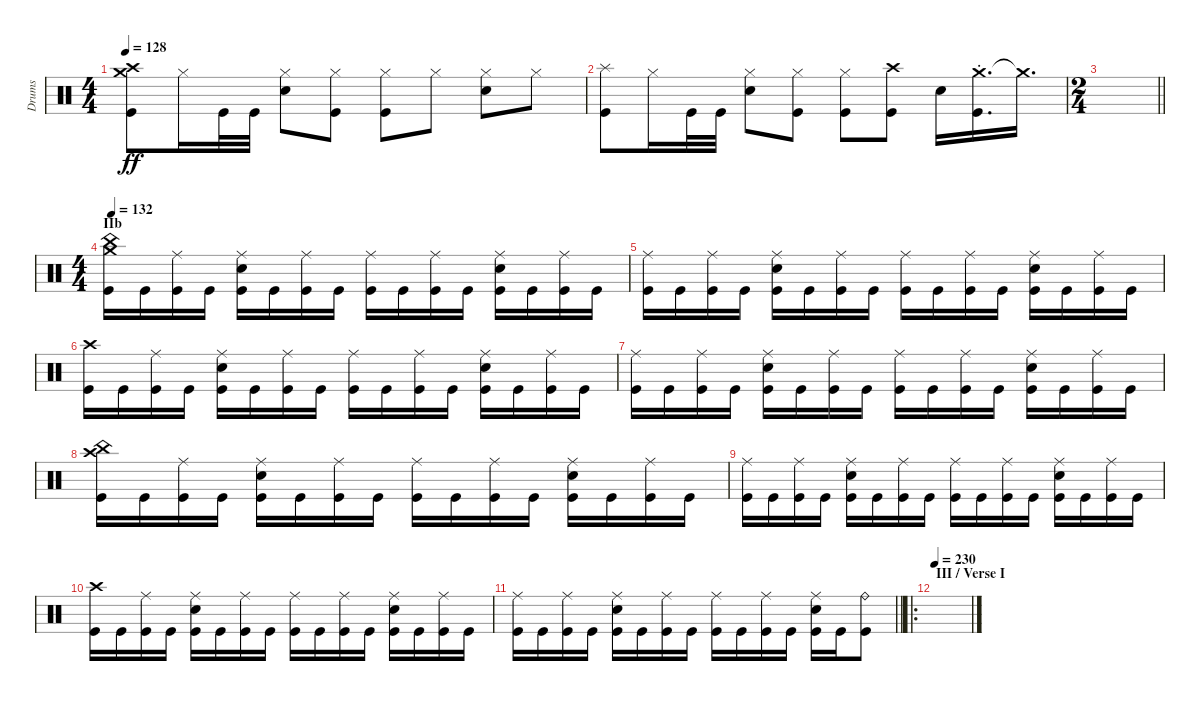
\track ("Drums" "Drums") {instrument percussion}
\staff {score}
\articulation defaults
\ts (4 4)
\tempo 128
\clef neutral
\ks c
("Crash medium (hit)" "Crash high (hit)" "Kick (hit)").8{dy ff} "Hi-Hat (closed)".16 "Kick (hit)".32 "Kick (hit)".32 ("Hi-Hat (closed)" "Electric Snare (hit)").8 ("Hi-Hat (closed)" "Kick (hit)").8 ("Hi-Hat (closed)" "Kick (hit)").8 "Hi-Hat (closed)".8 ("Hi-Hat (closed)" "Electric Snare (hit)").8 "Hi-Hat (closed)".8 |
("Splash (hit)" "Kick (hit)").8 "Hi-Hat (closed)".16 "Kick (hit)".32 "Kick (hit)".32 ("Hi-Hat (closed)" "Electric Snare (hit)").8 ("Hi-Hat (closed)" "Kick (hit)").8 ("Hi-Hat (closed)" "Kick (hit)").8 ("Crash high (hit)" "Kick (hit)").8 "Electric Snare (hit)".16 ("Crash medium (hit)"{st} "Kick (hit)").16{d} "Crash medium (hit)"{t}.16{d} |
\ts (2 4)
\barLineRight lightlight
|
\ts (4 4)
\section ("" "IIb")
\tempo 132
("Crash medium (hit)" "China (hit)" "Kick (hit)").16 "Kick (hit)".16 ("Ride (middle)" "Kick (hit)").16 "Kick (hit)".16 ("Ride (middle)" "Electric Snare (hit)" "Kick (hit)").16 "Kick (hit)".16 ("Ride (middle)" "Kick (hit)").16 "Kick (hit)".16 ("Ride (middle)" "Kick (hit)").16 "Kick (hit)".16 ("Ride (middle)" "Kick (hit)").16 "Kick (hit)".16 ("Ride (middle)" "Electric Snare (hit)" "Kick (hit)").16 "Kick (hit)".16 ("Ride (middle)" "Kick (hit)").16 "Kick (hit)".16 |
("Ride (middle)" "Kick (hit)").16 "Kick (hit)".16 ("Ride (middle)" "Kick (hit)").16 "Kick (hit)".16 ("Ride (middle)" "Electric Snare (hit)" "Kick (hit)").16 "Kick (hit)".16 ("Ride (middle)" "Kick (hit)").16 "Kick (hit)".16 ("Ride (middle)" "Kick (hit)").16 "Kick (hit)".16 ("Ride (middle)" "Kick (hit)").16 "Kick (hit)".16 ("Ride (middle)" "Electric Snare (hit)" "Kick (hit)").16 "Kick (hit)".16 ("Ride (middle)" "Kick (hit)").16 "Kick (hit)".16 |
("Crash high (hit)" "Kick (hit)").16 "Kick (hit)".16 ("Ride (middle)" "Kick (hit)").16 "Kick (hit)".16 ("Ride (middle)" "Electric Snare (hit)" "Kick (hit)").16 "Kick (hit)".16 ("Ride (middle)" "Kick (hit)").16 "Kick (hit)".16 ("Ride (middle)" "Kick (hit)").16 "Kick (hit)".16 ("Ride (middle)" "Kick (hit)").16 "Kick (hit)".16 ("Ride (middle)" "Electric Snare (hit)" "Kick (hit)").16 "Kick (hit)".16 ("Ride (middle)" "Kick (hit)").16 "Kick (hit)".16 |
("Ride (middle)" "Kick (hit)").16 "Kick (hit)".16 ("Ride (middle)" "Kick (hit)").16 "Kick (hit)".16 ("Ride (middle)" "Electric Snare (hit)" "Kick (hit)").16 "Kick (hit)".16 ("Ride (middle)" "Kick (hit)").16 "Kick (hit)".16 ("Ride (middle)" "Kick (hit)").16 "Kick (hit)".16 ("Ride (middle)" "Kick (hit)").16 "Kick (hit)".16 ("Ride (middle)" "Electric Snare (hit)" "Kick (hit)").16 "Kick (hit)".16 ("Ride (middle)" "Kick (hit)").16 "Kick (hit)".16 |
("Crash high (hit)" "China (hit)" "Kick (hit)").16 "Kick (hit)".16 ("Ride (middle)" "Kick (hit)").16 "Kick (hit)".16 ("Ride (middle)" "Electric Snare (hit)" "Kick (hit)").16 "Kick (hit)".16 ("Ride (middle)" "Kick (hit)").16 "Kick (hit)".16 ("Ride (middle)" "Kick (hit)").16 "Kick (hit)".16 ("Ride (middle)" "Kick (hit)").16 "Kick (hit)".16 ("Ride (middle)" "Electric Snare (hit)" "Kick (hit)").16 "Kick (hit)".16 ("Ride (middle)" "Kick (hit)").16 "Kick (hit)".16 |
("Ride (middle)" "Kick (hit)").16 "Kick (hit)".16 ("Ride (middle)" "Kick (hit)").16 "Kick (hit)".16 ("Ride (middle)" "Electric Snare (hit)" "Kick (hit)").16 "Kick (hit)".16 ("Ride (middle)" "Kick (hit)").16 "Kick (hit)".16 ("Ride (middle)" "Kick (hit)").16 "Kick (hit)".16 ("Ride (middle)" "Kick (hit)").16 "Kick (hit)".16 ("Ride (middle)" "Electric Snare (hit)" "Kick (hit)").16 "Kick (hit)".16 ("Ride (middle)" "Kick (hit)").16 "Kick (hit)".16 |
("Crash high (hit)" "Kick (hit)").16 "Kick (hit)".16 ("Ride (middle)" "Kick (hit)").16 "Kick (hit)".16 ("Ride (middle)" "Electric Snare (hit)" "Kick (hit)").16 "Kick (hit)".16 ("Ride (middle)" "Kick (hit)").16 "Kick (hit)".16 ("Ride (middle)" "Kick (hit)").16 "Kick (hit)".16 ("Ride (middle)" "Kick (hit)").16 "Kick (hit)".16 ("Ride (middle)" "Electric Snare (hit)" "Kick (hit)").16 "Kick (hit)".16 ("Ride (middle)" "Kick (hit)").16 "Kick (hit)".16 |
\barLineRight lightlight
("Ride (middle)" "Kick (hit)").16 "Kick (hit)".16 ("Ride (middle)" "Kick (hit)").16 "Kick (hit)".16 ("Ride (middle)" "Electric Snare (hit)" "Kick (hit)").16 "Kick (hit)".16 ("Ride (middle)" "Kick (hit)").16 "Kick (hit)".16 ("Ride (middle)" "Kick (hit)").16 "Kick (hit)".16 ("Ride (middle)" "Kick (hit)").16 "Kick (hit)".16 ("Ride (middle)" "Electric Snare (hit)" "Kick (hit)").16 "Kick (hit)".16 ("Ride (bell)" "Kick (hit)").8 |
\ro
\section ("" "III / Verse I")
\tempo 230
